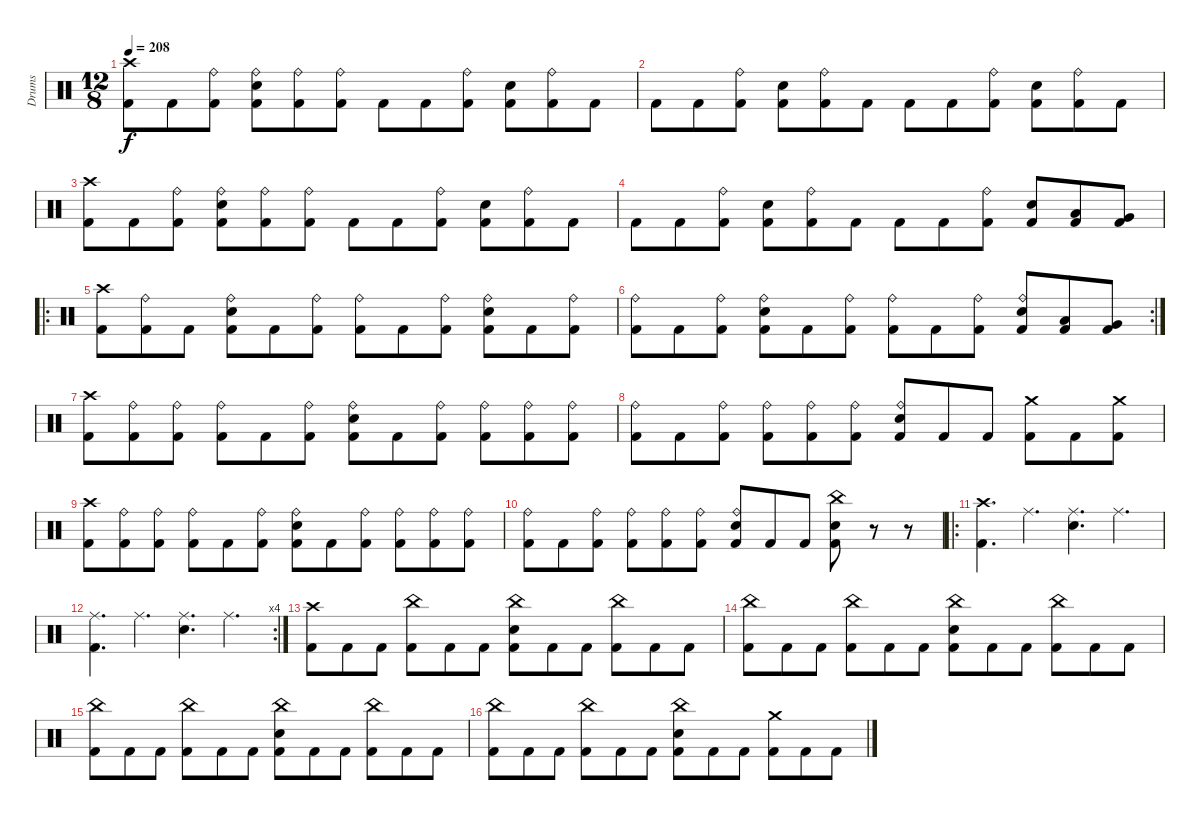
\track ("Drums" "Drums") {instrument percussion}
\staff {score}
\articulation defaults
\ts (12 8)
\tempo 208
\clef neutral
\ks c
("Crash high (hit)" "Kick (hit) 2").8{dy f} "Kick (hit) 2".8 ("Ride (bell)" "Kick (hit) 2").8 ("Ride (bell)" "Electric Snare (hit)" "Kick (hit) 2").8 ("Ride (bell)" "Kick (hit) 2").8 ("Ride (bell)" "Kick (hit) 2").8 "Kick (hit) 2".8 "Kick (hit) 2".8 ("Ride (bell)" "Kick (hit) 2").8 ("Electric Snare (hit)" "Kick (hit) 2").8 ("Ride (bell)" "Kick (hit) 2").8 "Kick (hit) 2".8 |
"Kick (hit) 2".8 "Kick (hit) 2".8 ("Ride (bell)" "Kick (hit) 2").8 ("Electric Snare (hit)" "Kick (hit) 2").8 ("Ride (bell)" "Kick (hit) 2").8 "Kick (hit) 2".8 "Kick (hit) 2".8 "Kick (hit) 2".8 ("Ride (bell)" "Kick (hit) 2").8 ("Electric Snare (hit)" "Kick (hit) 2").8 ("Ride (bell)" "Kick (hit) 2").8 "Kick (hit) 2".8 |
("Crash high (hit)" "Kick (hit) 2").8 "Kick (hit) 2".8 ("Ride (bell)" "Kick (hit) 2").8 ("Ride (bell)" "Electric Snare (hit)" "Kick (hit) 2").8 ("Ride (bell)" "Kick (hit) 2").8 ("Ride (bell)" "Kick (hit) 2").8 "Kick (hit) 2".8 "Kick (hit) 2".8 ("Ride (bell)" "Kick (hit) 2").8 ("Electric Snare (hit)" "Kick (hit) 2").8 ("Ride (bell)" "Kick (hit) 2").8 "Kick (hit) 2".8 |
"Kick (hit) 2".8 "Kick (hit) 2".8 ("Ride (bell)" "Kick (hit) 2").8 ("Electric Snare (hit)" "Kick (hit) 2").8 ("Ride (bell)" "Kick (hit) 2").8 "Kick (hit) 2".8 "Kick (hit) 2".8 "Kick (hit) 2".8 ("Ride (bell)" "Kick (hit) 2").8 ("Electric Snare (hit)" "Kick (hit) 2").8 ("Low Tom (hit)" "Kick (hit) 2").8 ("Very Low Tom (hit)" "Kick (hit) 2").8 |
\ro
("Crash high (hit)" "Kick (hit) 2").8 ("Ride (bell)" "Kick (hit) 2").8 "Kick (hit) 2".8 ("Ride (bell)" "Electric Snare (hit)" "Kick (hit) 2").8 "Kick (hit) 2".8 ("Ride (bell)" "Kick (hit) 2").8 ("Ride (bell)" "Kick (hit) 2").8 "Kick (hit) 2".8 ("Ride (bell)" "Kick (hit) 2").8 ("Ride (bell)" "Electric Snare (hit)" "Kick (hit) 2").8 "Kick (hit) 2".8 ("Ride (bell)" "Kick (hit) 2").8 |
\rc 2
("Ride (bell)" "Kick (hit) 2").8 "Kick (hit) 2".8 ("Ride (bell)" "Kick (hit) 2").8 ("Ride (bell)" "Electric Snare (hit)" "Kick (hit) 2").8 "Kick (hit) 2".8 ("Ride (bell)" "Kick (hit) 2").8 ("Ride (bell)" "Kick (hit) 2").8 "Kick (hit) 2".8 ("Ride (bell)" "Kick (hit) 2").8 ("Ride (bell)" "Electric Snare (hit)" "Kick (hit) 2").8 ("Low Tom (hit)" "Kick (hit) 2").8 ("Very Low Tom (hit)" "Kick (hit) 2").8 |
("Crash high (hit)" "Kick (hit) 2").8 ("Ride (bell)" "Kick (hit) 2").8 ("Ride (bell)" "Kick (hit) 2").8 ("Ride (bell)" "Kick (hit) 2").8 "Kick (hit) 2".8 ("Ride (bell)" "Kick (hit) 2").8 ("Ride (bell)" "Electric Snare (hit)" "Kick (hit) 2").8 "Kick (hit) 2".8 ("Ride (bell)" "Kick (hit) 2").8 ("Ride (bell)" "Kick (hit) 2").8 ("Ride (bell)" "Kick (hit) 2").8 ("Ride (bell)" "Kick (hit) 2").8 |
("Ride (bell)" "Kick (hit) 2").8 "Kick (hit) 2".8 ("Ride (bell)" "Kick (hit) 2").8 ("Ride (bell)" "Kick (hit) 2").8 ("Ride (bell)" "Kick (hit) 2").8 ("Ride (bell)" "Kick (hit) 2").8 ("Ride (bell)" "Electric Snare (hit)" "Kick (hit) 2").8 "Kick (hit) 2".8 "Kick (hit) 2".8 ("Crash medium (hit)" "Kick (hit) 2").8 "Kick (hit) 2".8 ("Crash medium (hit)" "Kick (hit) 2").8 |
("Crash high (hit)" "Kick (hit) 2").8 ("Ride (bell)" "Kick (hit) 2").8 ("Ride (bell)" "Kick (hit) 2").8 ("Ride (bell)" "Kick (hit) 2").8 "Kick (hit) 2".8 ("Ride (bell)" "Kick (hit) 2").8 ("Ride (bell)" "Electric Snare (hit)" "Kick (hit) 2").8 "Kick (hit) 2".8 ("Ride (bell)" "Kick (hit) 2").8 ("Ride (bell)" "Kick (hit) 2").8 ("Ride (bell)" "Kick (hit) 2").8 ("Ride (bell)" "Kick (hit) 2").8 |
("Ride (bell)" "Kick (hit) 2").8 "Kick (hit) 2".8 ("Ride (bell)" "Kick (hit) 2").8 ("Ride (bell)" "Kick (hit) 2").8 ("Ride (bell)" "Kick (hit) 2").8 ("Ride (bell)" "Kick (hit) 2").8 ("Ride (bell)" "Electric Snare (hit)" "Kick (hit) 2").8 "Kick (hit) 2".8 "Kick (hit) 2".8 ("China (hit)" "Electric Snare (hit)" "Kick (hit) 2").8 r.8 r.8 |
\ro
("Crash high (hit)" "Kick (hit) 2").4{d} "Ride (middle)".4{d} ("Ride (middle)" "Electric Snare (hit)").4{d} "Ride (middle)".4{d} |
\rc 4
("Ride (middle)" "Kick (hit) 2").4{d} "Ride (middle)".4{d} ("Ride (middle)" "Electric Snare (hit)").4{d} "Ride (middle)".4{d} |
("Crash high (hit)" "Kick (hit) 2").8 "Kick (hit) 2".8 "Kick (hit) 2".8 ("China (hit)" "Kick (hit) 2").8 "Kick (hit) 2".8 "Kick (hit) 2".8 ("China (hit)" "Electric Snare (hit)" "Kick (hit) 2").8 "Kick (hit) 2".8 "Kick (hit) 2".8 ("China (hit)" "Kick (hit) 2").8 "Kick (hit) 2".8 "Kick (hit) 2".8 |
("China (hit)" "Kick (hit) 2").8 "Kick (hit) 2".8 "Kick (hit) 2".8 ("China (hit)" "Kick (hit) 2").8 "Kick (hit) 2".8 "Kick (hit) 2".8 ("China (hit)" "Electric Snare (hit)" "Kick (hit) 2").8 "Kick (hit) 2".8 "Kick (hit) 2".8 ("China (hit)" "Kick (hit) 2").8 "Kick (hit) 2".8 "Kick (hit) 2".8 |
("China (hit)" "Kick (hit) 2").8 "Kick (hit) 2".8 "Kick (hit) 2".8 ("China (hit)" "Kick (hit) 2").8 "Kick (hit) 2".8 "Kick (hit) 2".8 ("China (hit)" "Electric Snare (hit)" "Kick (hit) 2").8 "Kick (hit) 2".8 "Kick (hit) 2".8 ("China (hit)" "Kick (hit) 2").8 "Kick (hit) 2".8 "Kick (hit) 2".8 |
("China (hit)" "Kick (hit) 2").8 "Kick (hit) 2".8 "Kick (hit) 2".8 ("China (hit)" "Kick (hit) 2").8 "Kick (hit) 2".8 "Kick (hit) 2".8 ("China (hit)" "Electric Snare (hit)" "Kick (hit) 2").8 "Kick (hit) 2".8 "Kick (hit) 2".8 ("Crash medium (hit)" "Kick (hit) 2").8 "Kick (hit) 2".8 "Kick (hit) 2".8
